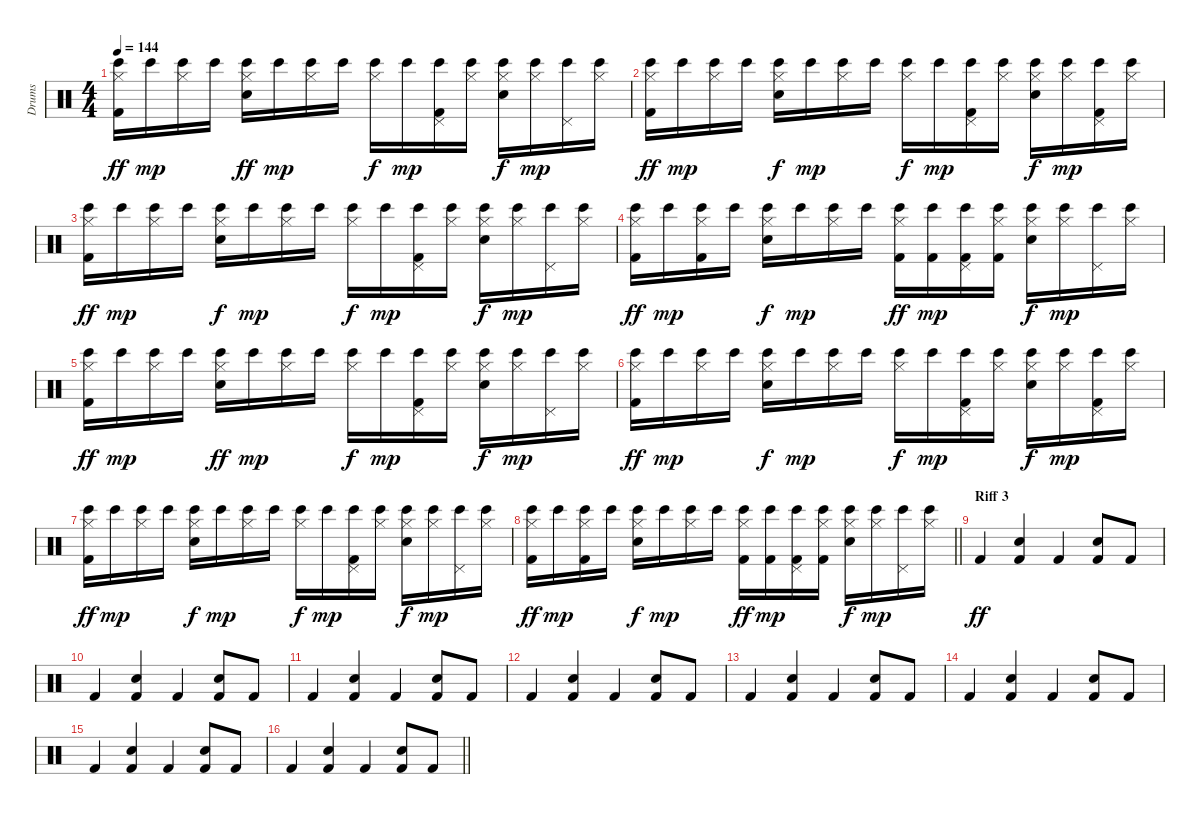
\track ("Drums" "Drums") {instrument percussion}
\staff {score}
\articulation defaults
\ts (4 4)
\tempo 144
\clef neutral
\ks c
("Kick (hit) 2" "Hi-Hat (closed)" "Bongo High (hit)").16{dy ff} "Bongo High (hit)".16{dy mp} ("Hi-Hat (closed)" "Bongo High (hit)").16 "Bongo High (hit)".16 ("Snare (hit) 2" "Hi-Hat (closed)" "Bongo High (hit)").16{dy ff} "Bongo High (hit)".16{dy mp} ("Hi-Hat (closed)" "Bongo High (hit)").16 "Bongo High (hit)".16 ("Hi-Hat (closed)" "Bongo High (hit)").16{dy f} "Bongo High (hit)".16{dy mp} ("Kick (hit) 2" "Pedal Hi-Hat (hit)" "Bongo High (hit)").16 ("Hi-Hat (closed)" "Bongo High (hit)").16 ("Snare (hit) 2" "Hi-Hat (closed)" "Bongo High (hit)").16{dy f} ("Hi-Hat (closed)" "Bongo High (hit)").16{dy mp} ("Pedal Hi-Hat (hit)" "Bongo High (hit)").16 ("Hi-Hat (closed)" "Bongo High (hit)").16 |
("Kick (hit) 2" "Hi-Hat (closed)" "Bongo High (hit)").16{dy ff} "Bongo High (hit)".16{dy mp} ("Hi-Hat (closed)" "Bongo High (hit)").16 "Bongo High (hit)".16 ("Snare (hit) 2" "Hi-Hat (closed)" "Bongo High (hit)").16{dy f} "Bongo High (hit)".16{dy mp} ("Hi-Hat (closed)" "Bongo High (hit)").16 "Bongo High (hit)".16 ("Hi-Hat (closed)" "Bongo High (hit)").16{dy f} "Bongo High (hit)".16{dy mp} ("Kick (hit) 2" "Pedal Hi-Hat (hit)" "Bongo High (hit)").16 ("Hi-Hat (closed)" "Bongo High (hit)").16 ("Snare (hit) 2" "Hi-Hat (closed)" "Bongo High (hit)").16{dy f} ("Hi-Hat (closed)" "Bongo High (hit)").16{dy mp} ("Kick (hit) 2" "Pedal Hi-Hat (hit)" "Bongo High (hit)").16 ("Hi-Hat (closed)" "Bongo High (hit)").16 |
("Kick (hit) 2" "Hi-Hat (closed)" "Bongo High (hit)").16{dy ff} "Bongo High (hit)".16{dy mp} ("Hi-Hat (closed)" "Bongo High (hit)").16 "Bongo High (hit)".16 ("Snare (hit) 2" "Hi-Hat (closed)" "Bongo High (hit)").16{dy f} "Bongo High (hit)".16{dy mp} ("Hi-Hat (closed)" "Bongo High (hit)").16 "Bongo High (hit)".16 ("Hi-Hat (closed)" "Bongo High (hit)").16{dy f} "Bongo High (hit)".16{dy mp} ("Kick (hit) 2" "Pedal Hi-Hat (hit)" "Bongo High (hit)").16 ("Hi-Hat (closed)" "Bongo High (hit)").16 ("Snare (hit) 2" "Hi-Hat (closed)" "Bongo High (hit)").16{dy f} ("Hi-Hat (closed)" "Bongo High (hit)").16{dy mp} ("Pedal Hi-Hat (hit)" "Bongo High (hit)").16 ("Hi-Hat (closed)" "Bongo High (hit)").16 |
("Kick (hit) 2" "Hi-Hat (closed)" "Bongo High (hit)").16{dy ff} "Bongo High (hit)".16{dy mp} ("Kick (hit) 2" "Hi-Hat (closed)" "Bongo High (hit)").16 "Bongo High (hit)".16 ("Snare (hit) 2" "Hi-Hat (closed)" "Bongo High (hit)").16{dy f} "Bongo High (hit)".16{dy mp} ("Hi-Hat (closed)" "Bongo High (hit)").16 "Bongo High (hit)".16 ("Kick (hit) 2" "Hi-Hat (closed)" "Bongo High (hit)").16{dy ff} ("Kick (hit) 2" "Bongo High (hit)").16{dy mp} ("Kick (hit) 2" "Pedal Hi-Hat (hit)" "Bongo High (hit)").16 ("Kick (hit) 2" "Hi-Hat (closed)" "Bongo High (hit)").16 ("Snare (hit) 2" "Hi-Hat (closed)" "Bongo High (hit)").16{dy f} ("Hi-Hat (closed)" "Bongo High (hit)").16{dy mp} ("Pedal Hi-Hat (hit)" "Bongo High (hit)").16 ("Hi-Hat (closed)" "Bongo High (hit)").16 |
("Kick (hit) 2" "Hi-Hat (closed)" "Bongo High (hit)").16{dy ff} "Bongo High (hit)".16{dy mp} ("Hi-Hat (closed)" "Bongo High (hit)").16 "Bongo High (hit)".16 ("Snare (hit) 2" "Hi-Hat (closed)" "Bongo High (hit)").16{dy ff} "Bongo High (hit)".16{dy mp} ("Hi-Hat (closed)" "Bongo High (hit)").16 "Bongo High (hit)".16 ("Hi-Hat (closed)" "Bongo High (hit)").16{dy f} "Bongo High (hit)".16{dy mp} ("Kick (hit) 2" "Pedal Hi-Hat (hit)" "Bongo High (hit)").16 ("Hi-Hat (closed)" "Bongo High (hit)").16 ("Snare (hit) 2" "Hi-Hat (closed)" "Bongo High (hit)").16{dy f} ("Hi-Hat (closed)" "Bongo High (hit)").16{dy mp} ("Pedal Hi-Hat (hit)" "Bongo High (hit)").16 ("Hi-Hat (closed)" "Bongo High (hit)").16 |
("Kick (hit) 2" "Hi-Hat (closed)" "Bongo High (hit)").16{dy ff} "Bongo High (hit)".16{dy mp} ("Hi-Hat (closed)" "Bongo High (hit)").16 "Bongo High (hit)".16 ("Snare (hit) 2" "Hi-Hat (closed)" "Bongo High (hit)").16{dy f} "Bongo High (hit)".16{dy mp} ("Hi-Hat (closed)" "Bongo High (hit)").16 "Bongo High (hit)".16 ("Hi-Hat (closed)" "Bongo High (hit)").16{dy f} "Bongo High (hit)".16{dy mp} ("Kick (hit) 2" "Pedal Hi-Hat (hit)" "Bongo High (hit)").16 ("Hi-Hat (closed)" "Bongo High (hit)").16 ("Snare (hit) 2" "Hi-Hat (closed)" "Bongo High (hit)").16{dy f} ("Hi-Hat (closed)" "Bongo High (hit)").16{dy mp} ("Kick (hit) 2" "Pedal Hi-Hat (hit)" "Bongo High (hit)").16 ("Hi-Hat (closed)" "Bongo High (hit)").16 |
("Kick (hit) 2" "Hi-Hat (closed)" "Bongo High (hit)").16{dy ff} "Bongo High (hit)".16{dy mp} ("Hi-Hat (closed)" "Bongo High (hit)").16 "Bongo High (hit)".16 ("Snare (hit) 2" "Hi-Hat (closed)" "Bongo High (hit)").16{dy f} "Bongo High (hit)".16{dy mp} ("Hi-Hat (closed)" "Bongo High (hit)").16 "Bongo High (hit)".16 ("Hi-Hat (closed)" "Bongo High (hit)").16{dy f} "Bongo High (hit)".16{dy mp} ("Kick (hit) 2" "Pedal Hi-Hat (hit)" "Bongo High (hit)").16 ("Hi-Hat (closed)" "Bongo High (hit)").16 ("Snare (hit) 2" "Hi-Hat (closed)" "Bongo High (hit)").16{dy f} ("Hi-Hat (closed)" "Bongo High (hit)").16{dy mp} ("Pedal Hi-Hat (hit)" "Bongo High (hit)").16 ("Hi-Hat (closed)" "Bongo High (hit)").16 |
\barLineRight lightlight
("Kick (hit) 2" "Hi-Hat (closed)" "Bongo High (hit)").16{dy ff} "Bongo High (hit)".16{dy mp} ("Kick (hit) 2" "Hi-Hat (closed)" "Bongo High (hit)").16 "Bongo High (hit)".16 ("Snare (hit) 2" "Hi-Hat (closed)" "Bongo High (hit)").16{dy f} "Bongo High (hit)".16{dy mp} ("Hi-Hat (closed)" "Bongo High (hit)").16 "Bongo High (hit)".16 ("Kick (hit) 2" "Hi-Hat (closed)" "Bongo High (hit)").16{dy ff} ("Kick (hit) 2" "Bongo High (hit)").16{dy mp} ("Kick (hit) 2" "Pedal Hi-Hat (hit)" "Bongo High (hit)").16 ("Kick (hit) 2" "Hi-Hat (closed)" "Bongo High (hit)").16 ("Snare (hit) 2" "Hi-Hat (closed)" "Bongo High (hit)").16{dy f} ("Hi-Hat (closed)" "Bongo High (hit)").16{dy mp} ("Pedal Hi-Hat (hit)" "Bongo High (hit)").16 ("Hi-Hat (closed)" "Bongo High (hit)").16 |
\section ("" "Riff 3")
"Kick (hit) 2".4{dy ff} ("Kick (hit) 2" "Snare (hit) 2").4 "Kick (hit) 2".4 ("Kick (hit) 2" "Snare (hit) 2").8 "Kick (hit) 2".8 |
"Kick (hit) 2".4 ("Kick (hit) 2" "Snare (hit) 2").4 "Kick (hit) 2".4 ("Kick (hit) 2" "Snare (hit) 2").8 "Kick (hit) 2".8 |
"Kick (hit) 2".4 ("Kick (hit) 2" "Snare (hit) 2").4 "Kick (hit) 2".4 ("Kick (hit) 2" "Snare (hit) 2").8 "Kick (hit) 2".8 |
"Kick (hit) 2".4 ("Kick (hit) 2" "Snare (hit) 2").4 "Kick (hit) 2".4 ("Kick (hit) 2" "Snare (hit) 2").8 "Kick (hit) 2".8 |
"Kick (hit) 2".4 ("Kick (hit) 2" "Snare (hit) 2").4 "Kick (hit) 2".4 ("Kick (hit) 2" "Snare (hit) 2").8 "Kick (hit) 2".8 |
"Kick (hit) 2".4 ("Kick (hit) 2" "Snare (hit) 2").4 "Kick (hit) 2".4 ("Kick (hit) 2" "Snare (hit) 2").8 "Kick (hit) 2".8 |
"Kick (hit) 2".4 ("Kick (hit) 2" "Snare (hit) 2").4 "Kick (hit) 2".4 ("Kick (hit) 2" "Snare (hit) 2").8 "Kick (hit) 2".8 |
\barLineRight lightlight "Kick (hit) 2".4
("Kick (hit) 2" "Snare (hit) 2").4 "Kick (hit) 2".4 ("Kick (hit) 2" "Snare (hit) 2").8 "Kick (hit) 2".8
